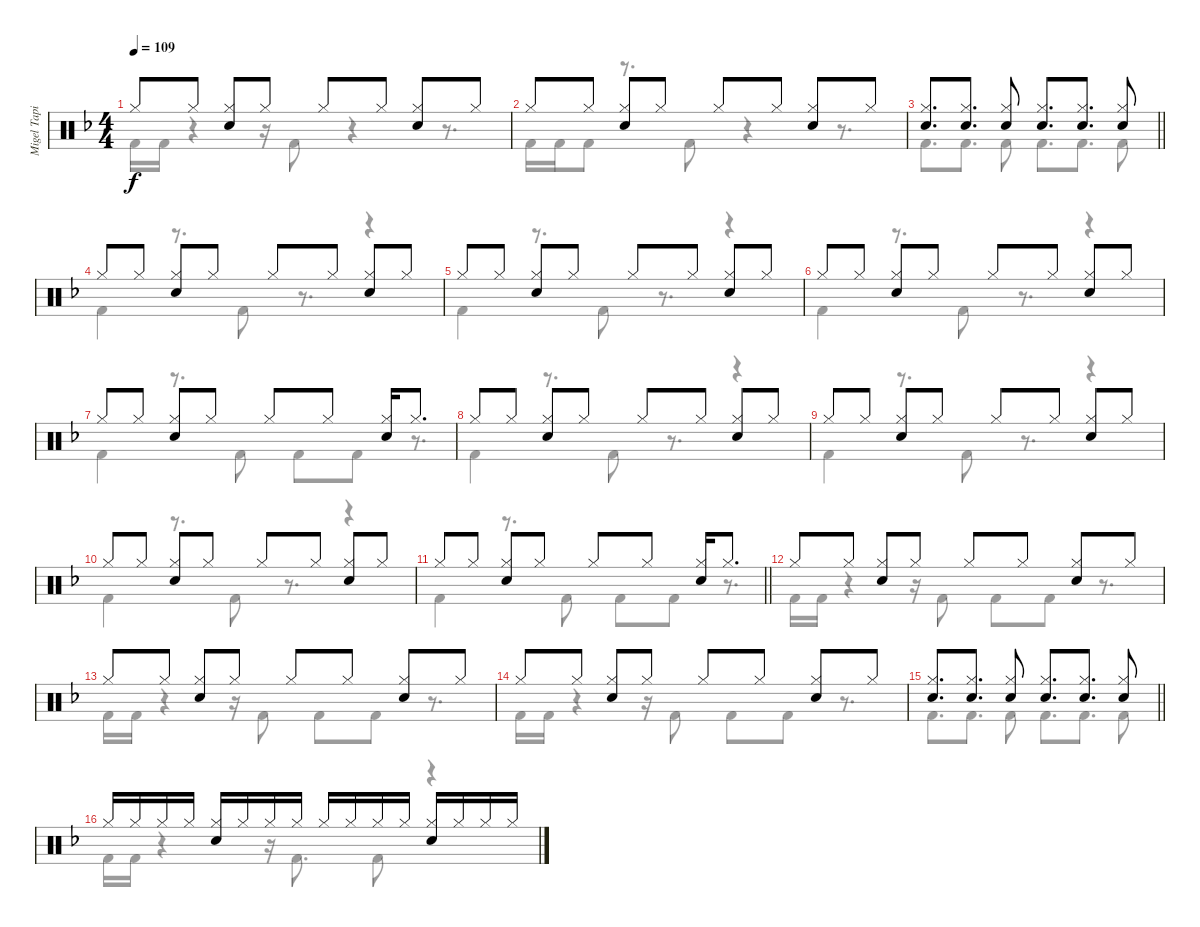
\track ("Migel Tapia (Batería)" "Migel Tapi") {instrument percussion}
\staff {score}
\articulation defaults
\voice
\ts (4 4)
\tempo 109
\clef neutral
\ks dminor "Hi-Hat (closed)".8{dy f} "Hi-Hat (closed)".8
("Hi-Hat (closed)" "Snare (hit) 2").8 "Hi-Hat (closed)".8 "Hi-Hat (closed)".8 "Hi-Hat (closed)".8 ("Hi-Hat (closed)" "Snare (hit) 2").8 "Hi-Hat (closed)".8 |
"Hi-Hat (closed)".8 "Hi-Hat (closed)".8 ("Hi-Hat (closed)" "Snare (hit) 2").8 "Hi-Hat (closed)".8 "Hi-Hat (closed)".8 "Hi-Hat (closed)".8 ("Hi-Hat (closed)" "Snare (hit) 2").8 "Hi-Hat (closed)".8 |
\barLineRight lightlight
("Hi-Hat (closed)" "Snare (hit) 2").8{d} ("Hi-Hat (closed)" "Snare (hit) 2").8{d} ("Hi-Hat (closed)" "Snare (hit) 2").8 ("Hi-Hat (closed)" "Snare (hit) 2").8{d} ("Hi-Hat (closed)" "Snare (hit) 2").8{d} ("Hi-Hat (closed)" "Snare (hit) 2").8 |
"Hi-Hat (closed)".8 "Hi-Hat (closed)".8 ("Hi-Hat (closed)" "Snare (hit) 2").8 "Hi-Hat (closed)".8 "Hi-Hat (closed)".8 "Hi-Hat (closed)".8 ("Hi-Hat (closed)" "Snare (hit) 2").8 "Hi-Hat (closed)".8 |
"Hi-Hat (closed)".8 "Hi-Hat (closed)".8 ("Hi-Hat (closed)" "Snare (hit) 2").8 "Hi-Hat (closed)".8 "Hi-Hat (closed)".8 "Hi-Hat (closed)".8 ("Hi-Hat (closed)" "Snare (hit) 2").8 "Hi-Hat (closed)".8 |
"Hi-Hat (closed)".8 "Hi-Hat (closed)".8 ("Hi-Hat (closed)" "Snare (hit) 2").8 "Hi-Hat (closed)".8 "Hi-Hat (closed)".8 "Hi-Hat (closed)".8 ("Hi-Hat (closed)" "Snare (hit) 2").8 "Hi-Hat (closed)".8 |
"Hi-Hat (closed)".8 "Hi-Hat (closed)".8 ("Hi-Hat (closed)" "Snare (hit) 2").8 "Hi-Hat (closed)".8 "Hi-Hat (closed)".8 "Hi-Hat (closed)".8 ("Hi-Hat (closed)" "Snare (hit) 2").16 "Hi-Hat (closed)".8{d} |
"Hi-Hat (closed)".8 "Hi-Hat (closed)".8 ("Hi-Hat (closed)" "Snare (hit) 2").8 "Hi-Hat (closed)".8 "Hi-Hat (closed)".8 "Hi-Hat (closed)".8 ("Hi-Hat (closed)" "Snare (hit) 2").8 "Hi-Hat (closed)".8 |
"Hi-Hat (closed)".8 "Hi-Hat (closed)".8 ("Hi-Hat (closed)" "Snare (hit) 2").8 "Hi-Hat (closed)".8 "Hi-Hat (closed)".8 "Hi-Hat (closed)".8 ("Hi-Hat (closed)" "Snare (hit) 2").8 "Hi-Hat (closed)".8 |
"Hi-Hat (closed)".8 "Hi-Hat (closed)".8 ("Hi-Hat (closed)" "Snare (hit) 2").8 "Hi-Hat (closed)".8 "Hi-Hat (closed)".8 "Hi-Hat (closed)".8 ("Hi-Hat (closed)" "Snare (hit) 2").8 "Hi-Hat (closed)".8 |
\barLineRight lightlight "Hi-Hat (closed)".8 "Hi-Hat (closed)".8
("Hi-Hat (closed)" "Snare (hit) 2").8 "Hi-Hat (closed)".8 "Hi-Hat (closed)".8 "Hi-Hat (closed)".8 ("Hi-Hat (closed)" "Snare (hit) 2").16 "Hi-Hat (closed)".8{d} |
"Hi-Hat (closed)".8 "Hi-Hat (closed)".8 ("Hi-Hat (closed)" "Snare (hit) 2").8 "Hi-Hat (closed)".8 "Hi-Hat (closed)".8 "Hi-Hat (closed)".8 ("Hi-Hat (closed)" "Snare (hit) 2").8 "Hi-Hat (closed)".8 |
"Hi-Hat (closed)".8 "Hi-Hat (closed)".8 ("Hi-Hat (closed)" "Snare (hit) 2").8 "Hi-Hat (closed)".8 "Hi-Hat (closed)".8 "Hi-Hat (closed)".8 ("Hi-Hat (closed)" "Snare (hit) 2").8 "Hi-Hat (closed)".8 |
"Hi-Hat (closed)".8 "Hi-Hat (closed)".8 ("Hi-Hat (closed)" "Snare (hit) 2").8 "Hi-Hat (closed)".8 "Hi-Hat (closed)".8 "Hi-Hat (closed)".8 ("Hi-Hat (closed)" "Snare (hit) 2").8 "Hi-Hat (closed)".8 |
\barLineRight lightlight
("Hi-Hat (closed)" "Snare (hit) 2").8{d} ("Hi-Hat (closed)" "Snare (hit) 2").8{d} ("Hi-Hat (closed)" "Snare (hit) 2").8 ("Hi-Hat (closed)" "Snare (hit) 2").8{d} ("Hi-Hat (closed)" "Snare (hit) 2").8{d} ("Hi-Hat (closed)" "Snare (hit) 2").8 |
"Hi-Hat (closed)".16 "Hi-Hat (closed)".16 "Hi-Hat (closed)".16 "Hi-Hat (closed)".16 ("Hi-Hat (closed)" "Snare (hit) 2").16 "Hi-Hat (closed)".16 "Hi-Hat (closed)".16 "Hi-Hat (closed)".16 "Hi-Hat (closed)".16 "Hi-Hat (closed)".16 "Hi-Hat (closed)".16 "Hi-Hat (closed)".16 ("Hi-Hat (closed)" "Snare (hit) 2").16 "Hi-Hat (closed)".16 "Hi-Hat (closed)".16 "Hi-Hat (closed)".16
\voice
\clef neutral
\ottava regular
\simile none
\ks dminor "Kick (hit) 2".16{dy f} "Kick (hit) 2".16
r.4 r.16 "Kick (hit) 2".8 r.4 r.8{d} |
"Kick (hit) 2".16 "Kick (hit) 2".16 "Kick (hit) 2".8 r.8{d} "Kick (hit) 2".8 r.4 r.8{d} |
\barLineRight lightlight "Kick (hit) 2".8{d} "Kick (hit) 2".8{d} "Kick (hit) 2".8 "Kick (hit) 2".8{d} "Kick (hit) 2".8{d} "Kick (hit) 2".8
|
"Kick (hit) 2".4 r.8{d} "Kick (hit) 2".8 r.8{d} r.4 |
"Kick (hit) 2".4 r.8{d} "Kick (hit) 2".8 r.8{d} r.4 |
"Kick (hit) 2".4 r.8{d} "Kick (hit) 2".8 r.8{d} r.4 |
"Kick (hit) 2".4 r.8{d} "Kick (hit) 2".8 "Kick (hit) 2".8 "Kick (hit) 2".8 r.8{d} |
"Kick (hit) 2".4 r.8{d} "Kick (hit) 2".8 r.8{d} r.4 |
"Kick (hit) 2".4 r.8{d} "Kick (hit) 2".8 r.8{d} r.4 |
"Kick (hit) 2".4 r.8{d} "Kick (hit) 2".8 r.8{d} r.4 |
\barLineRight lightlight "Kick (hit) 2".4
r.8{d} "Kick (hit) 2".8 "Kick (hit) 2".8 "Kick (hit) 2".8 r.8{d} |
"Kick (hit) 2".16 "Kick (hit) 2".16 r.4 r.16 "Kick (hit) 2".8 "Kick (hit) 2".8 "Kick (hit) 2".8 r.8{d} |
"Kick (hit) 2".16 "Kick (hit) 2".16 r.4 r.16 "Kick (hit) 2".8 "Kick (hit) 2".8 "Kick (hit) 2".8 r.8{d} |
"Kick (hit) 2".16 "Kick (hit) 2".16 r.4 r.16 "Kick (hit) 2".8 "Kick (hit) 2".8 "Kick (hit) 2".8 r.8{d} |
\barLineRight lightlight "Kick (hit) 2".8{d} "Kick (hit) 2".8{d} "Kick (hit) 2".8 "Kick (hit) 2".8{d} "Kick (hit) 2".8{d} "Kick (hit) 2".8
|
"Kick (hit) 2".16 "Kick (hit) 2".16 r.4 r.16 "Kick (hit) 2".8{d} "Kick (hit) 2".8 r.4
